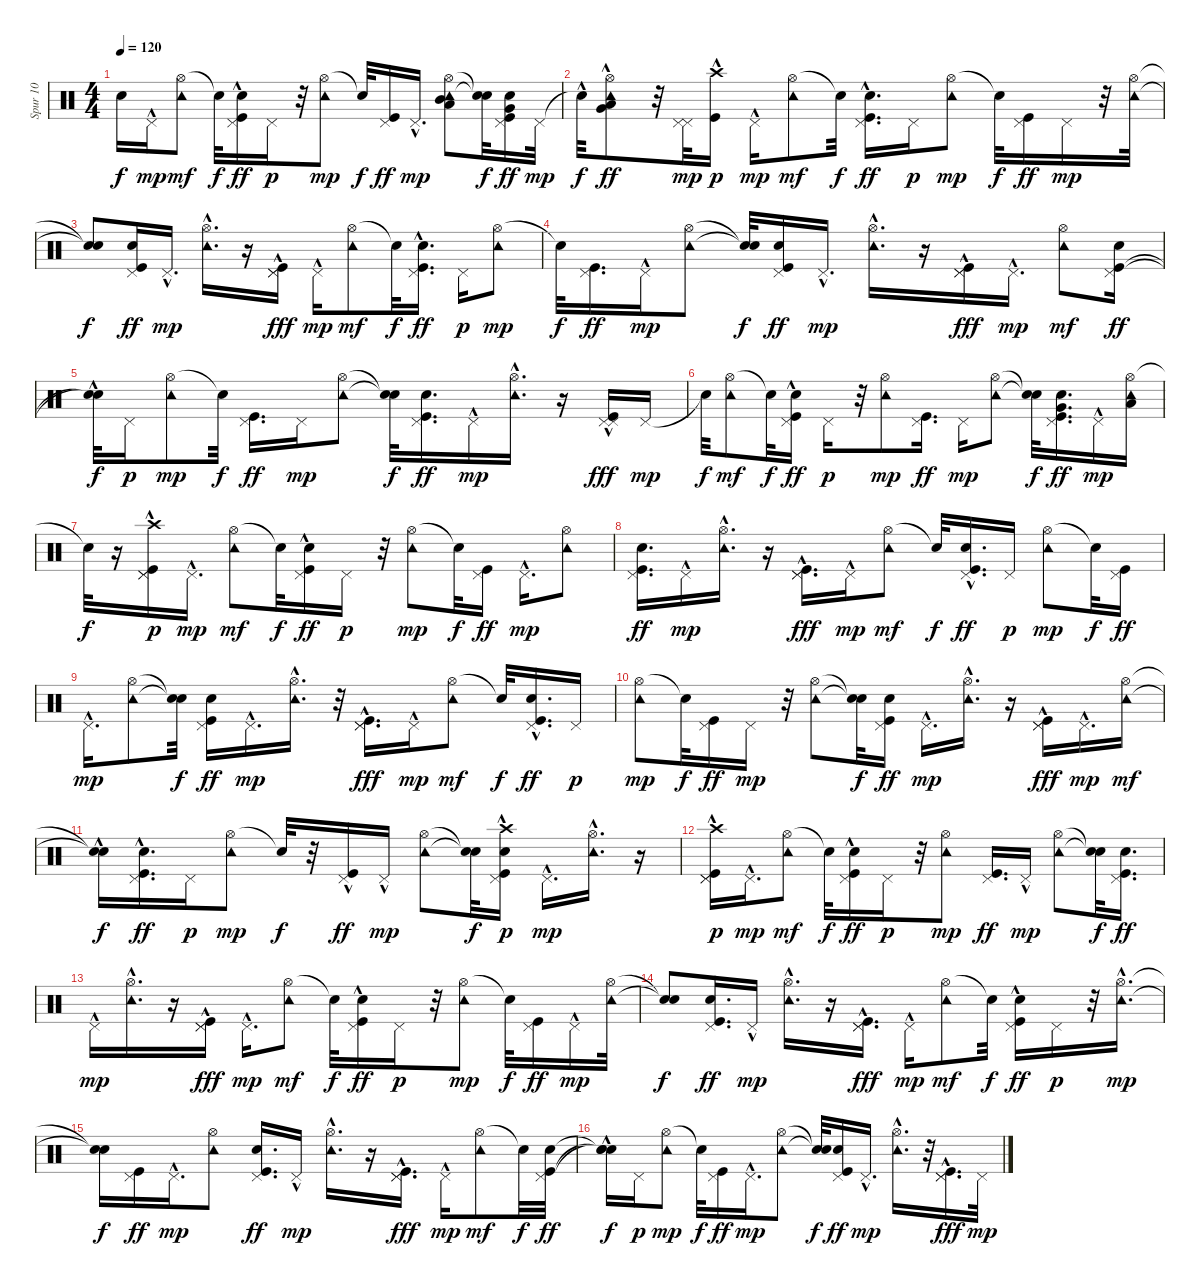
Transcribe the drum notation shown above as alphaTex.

\track ("Spur 10" "Spur 10") {instrument percussion}
\staff {score}
\articulation defaults
\ts (4 4)
\tempo 120
\clef neutral
\ks c "Snare (hit)"{t}.16{dy f} "Pedal Hi-Hat (hit)"{hac}.16{dy mp}
("Hi-Hat (open)" "Tambourine (hit)").8{dy mf} "Snare (hit)"{t}.32{dy f} ("Pedal Hi-Hat (hit)" "Kick (hit)"{hac} "Snare (hit) 2"{hac}).16{dy ff} "Pedal Hi-Hat (hit)".16{dy p} r.32 ("Hi-Hat (open)" "Tambourine (hit)").8{dy mp} "Snare (hit)"{t}.32{dy f} ("Pedal Hi-Hat (hit)" "Kick (hit)").16{dy ff} "Pedal Hi-Hat (hit)"{hac}.16{d dy mp} ("Hi-Hat (open)" "Tambourine (hit)" "Mid Tom (hit)" "Low Tom (hit)").8 ("Snare (hit)"{t} "Snare (hit)"{t}).32{dy f} ("Pedal Hi-Hat (hit)" "Kick (hit)" "Snare (hit) 2" "Very Low Tom (hit)").16{dy ff} "Pedal Hi-Hat (hit)".32{dy mp} |
"Snare (hit)"{hac t}.32{dy f} ("Hi-Hat (open)" "Tambourine (hit)"{hac} "Low Floor Tom (hit)" "Very Low Tom (hit)"{hac}).8{dy ff} r.32 ("Pedal Hi-Hat (hit)" "Pedal Hi-Hat (hit)").32{dy mp} ("Kick (hit)"{hac} "Crash high (hit)").16{dy p} "Pedal Hi-Hat (hit)"{hac}.16{dy mp} ("Hi-Hat (open)" "Tambourine (hit)").8{dy mf} "Snare (hit)"{t}.32{dy f} ("Pedal Hi-Hat (hit)" "Kick (hit)"{hac} "Snare (hit) 2"{hac}).16{d dy ff} "Pedal Hi-Hat (hit)".16{dy p} ("Hi-Hat (open)" "Tambourine (hit)").8{dy mp} "Snare (hit)"{t}.32{dy f} ("Pedal Hi-Hat (hit)" "Kick (hit)").16{dy ff} "Pedal Hi-Hat (hit)".16{dy mp} r.32 ("Hi-Hat (open)" "Tambourine (hit)").32 |
("Snare (hit)"{t} "Snare (hit)"{t}).8{dy f} ("Pedal Hi-Hat (hit)" "Kick (hit)" "Snare (hit) 2").16{dy ff} "Pedal Hi-Hat (hit)"{hac}.16{d dy mp} ("Hi-Hat (open)" "Tambourine (hit)"{hac}).16{d} r.16 ("Pedal Hi-Hat (hit)" "Pedal Hi-Hat (hit)" "Kick (hit)"{hac}).16{dy fff} "Pedal Hi-Hat (hit)"{hac}.16{dy mp} ("Hi-Hat (open)" "Tambourine (hit)").8{dy mf} "Snare (hit)"{t}.32{dy f} ("Pedal Hi-Hat (hit)" "Kick (hit)"{hac} "Snare (hit) 2"{hac}).16{d dy ff} "Pedal Hi-Hat (hit)".16{dy p} ("Hi-Hat (open)" "Tambourine (hit)").8{dy mp} |
"Snare (hit)"{t}.32{dy f} ("Pedal Hi-Hat (hit)" "Kick (hit)").16{d dy ff} "Pedal Hi-Hat (hit)"{hac}.16{dy mp} ("Hi-Hat (open)" "Tambourine (hit)").8 ("Snare (hit)"{t} "Snare (hit)"{t}).32{dy f} ("Pedal Hi-Hat (hit)" "Kick (hit)" "Snare (hit) 2").16{dy ff} "Pedal Hi-Hat (hit)"{hac}.16{d dy mp} ("Hi-Hat (open)" "Tambourine (hit)"{hac}).16{d} r.16 ("Pedal Hi-Hat (hit)" "Pedal Hi-Hat (hit)" "Kick (hit)"{hac}).16{dy fff} "Pedal Hi-Hat (hit)"{hac}.16{d dy mp} ("Hi-Hat (open)" "Tambourine (hit)").8{dy mf} ("Pedal Hi-Hat (hit)" "Kick (hit)" "Snare (hit) 2").16{dy ff} |
("Snare (hit)"{hac t} "Snare (hit)"{t}).32{dy f} "Pedal Hi-Hat (hit)".16{dy p} ("Hi-Hat (open)" "Tambourine (hit)").8{dy mp} "Snare (hit)"{t}.32{dy f} ("Pedal Hi-Hat (hit)" "Kick (hit)").16{d dy ff} "Pedal Hi-Hat (hit)".16{dy mp} ("Hi-Hat (open)" "Tambourine (hit)").8 ("Snare (hit)"{t} "Snare (hit)"{t}).32{dy f} ("Pedal Hi-Hat (hit)" "Kick (hit)" "Snare (hit) 2").16{d dy ff} "Pedal Hi-Hat (hit)"{hac}.16{dy mp} ("Hi-Hat (open)" "Tambourine (hit)"{hac}).16{d} r.16 ("Pedal Hi-Hat (hit)" "Pedal Hi-Hat (hit)" "Kick (hit)"{hac}).16{dy fff} "Pedal Hi-Hat (hit)".16{dy mp} |
"Snare (hit)"{t}.32{dy f} ("Hi-Hat (open)" "Tambourine (hit)").8{dy mf} "Snare (hit)"{t}.32{dy f} ("Pedal Hi-Hat (hit)" "Kick (hit)"{hac} "Snare (hit) 2"{hac}).16{dy ff} "Pedal Hi-Hat (hit)".16{dy p} r.32 ("Hi-Hat (open)" "Tambourine (hit)").8{dy mp} ("Pedal Hi-Hat (hit)" "Kick (hit)").16{d dy ff} "Pedal Hi-Hat (hit)".16{dy mp} ("Hi-Hat (open)" "Tambourine (hit)").8 ("Snare (hit)"{t} "Snare (hit)"{t}).32{dy f} ("Pedal Hi-Hat (hit)" "Kick (hit)" "Snare (hit) 2" "Very Low Tom (hit)").16{d dy ff} "Pedal Hi-Hat (hit)"{hac}.16{dy mp} ("Hi-Hat (open)" "Tambourine (hit)" "Low Floor Tom (hit)").16 |
"Snare (hit)"{t}.32{dy f} r.16 ("Pedal Hi-Hat (hit)" "Pedal Hi-Hat (hit)" "Kick (hit)"{hac} "Crash high (hit)").16{dy p} "Pedal Hi-Hat (hit)"{hac}.16{d dy mp} ("Hi-Hat (open)" "Tambourine (hit)").8{dy mf} "Snare (hit)"{t}.32{dy f} ("Pedal Hi-Hat (hit)" "Kick (hit)"{hac} "Snare (hit) 2"{hac}).16{dy ff} "Pedal Hi-Hat (hit)".16{dy p} r.32 ("Hi-Hat (open)" "Tambourine (hit)").8{dy mp} "Snare (hit)"{t}.32{dy f} ("Pedal Hi-Hat (hit)" "Kick (hit)").16{dy ff} "Pedal Hi-Hat (hit)"{hac}.16{d dy mp} ("Hi-Hat (open)" "Tambourine (hit)").8 |
("Pedal Hi-Hat (hit)" "Kick (hit)" "Snare (hit) 2").16{d dy ff} "Pedal Hi-Hat (hit)"{hac}.16{dy mp} ("Hi-Hat (open)" "Tambourine (hit)"{hac}).16{d} r.16 ("Pedal Hi-Hat (hit)" "Pedal Hi-Hat (hit)" "Kick (hit)"{hac}).16{d dy fff} "Pedal Hi-Hat (hit)"{hac}.16{dy mp} ("Hi-Hat (open)" "Tambourine (hit)").8{dy mf} "Snare (hit)"{t}.32{dy f} ("Pedal Hi-Hat (hit)" "Kick (hit)"{hac} "Snare (hit) 2"{hac}).16{d dy ff} "Pedal Hi-Hat (hit)".16{dy p} ("Hi-Hat (open)" "Tambourine (hit)").8{dy mp} "Snare (hit)"{t}.32{dy f} ("Pedal Hi-Hat (hit)" "Kick (hit)").16{dy ff} |
"Pedal Hi-Hat (hit)"{hac}.16{d dy mp} ("Hi-Hat (open)" "Tambourine (hit)").8 ("Snare (hit)"{t} "Snare (hit)"{t}).32{dy f} ("Pedal Hi-Hat (hit)" "Kick (hit)" "Snare (hit) 2").16{dy ff} "Pedal Hi-Hat (hit)"{hac}.16{d dy mp} ("Hi-Hat (open)" "Tambourine (hit)"{hac}).16{d} r.32 ("Pedal Hi-Hat (hit)" "Pedal Hi-Hat (hit)" "Kick (hit)"{hac}).16{d dy fff} "Pedal Hi-Hat (hit)"{hac}.16{dy mp} ("Hi-Hat (open)" "Tambourine (hit)").8{dy mf} "Snare (hit)"{t}.32{dy f} ("Pedal Hi-Hat (hit)" "Kick (hit)" "Snare (hit) 2"{hac}).16{d dy ff} "Pedal Hi-Hat (hit)".16{dy p} |
("Hi-Hat (open)" "Tambourine (hit)").8{dy mp} "Snare (hit)"{t}.32{dy f} ("Pedal Hi-Hat (hit)" "Kick (hit)").16{dy ff} "Pedal Hi-Hat (hit)".16{dy mp} r.32 ("Hi-Hat (open)" "Tambourine (hit)").8 ("Snare (hit)"{t} "Snare (hit)"{t}).32{dy f} ("Pedal Hi-Hat (hit)" "Kick (hit)" "Snare (hit) 2").16{dy ff} "Pedal Hi-Hat (hit)"{hac}.16{d dy mp} ("Hi-Hat (open)" "Tambourine (hit)"{hac}).16{d} r.16 ("Pedal Hi-Hat (hit)" "Pedal Hi-Hat (hit)" "Kick (hit)"{hac}).16{dy fff} "Pedal Hi-Hat (hit)"{hac}.16{d dy mp} ("Hi-Hat (open)" "Tambourine (hit)").16{dy mf} |
("Snare (hit)"{hac t} "Snare (hit)"{t}).16{dy f} ("Pedal Hi-Hat (hit)" "Kick (hit)" "Snare (hit) 2"{hac}).16{d dy ff} "Pedal Hi-Hat (hit)".16{dy p} ("Hi-Hat (open)" "Tambourine (hit)").8{dy mp} "Snare (hit)"{t}.32{dy f} r.32 ("Pedal Hi-Hat (hit)" "Kick (hit)"{hac}).16{dy ff} "Pedal Hi-Hat (hit)"{hac}.16{dy mp} ("Hi-Hat (open)" "Tambourine (hit)").8 ("Snare (hit)"{t} "Snare (hit)"{t}).32{dy f} ("Pedal Hi-Hat (hit)" "Kick (hit)"{hac} "Snare (hit) 2" "Crash high (hit)").16{dy p} "Pedal Hi-Hat (hit)"{hac}.16{d dy mp} ("Hi-Hat (open)" "Tambourine (hit)"{hac}).16{d} r.16 |
("Pedal Hi-Hat (hit)" "Pedal Hi-Hat (hit)" "Kick (hit)"{hac} "Crash high (hit)").16{dy p} "Pedal Hi-Hat (hit)"{hac}.16{d dy mp} ("Hi-Hat (open)" "Tambourine (hit)").8{dy mf} "Snare (hit)"{t}.32{dy f} ("Pedal Hi-Hat (hit)" "Kick (hit)"{hac} "Snare (hit) 2"{hac}).16{dy ff} "Pedal Hi-Hat (hit)".16{dy p} r.32 ("Hi-Hat (open)" "Tambourine (hit)").8{dy mp} ("Pedal Hi-Hat (hit)" "Kick (hit)").16{d dy ff} "Pedal Hi-Hat (hit)"{hac}.16{dy mp} ("Hi-Hat (open)" "Tambourine (hit)").8 ("Snare (hit)"{t} "Snare (hit)"{t}).32{dy f} ("Pedal Hi-Hat (hit)" "Kick (hit)" "Snare (hit) 2").16{d dy ff} |
"Pedal Hi-Hat (hit)"{hac}.16{dy mp} ("Hi-Hat (open)" "Tambourine (hit)"{hac}).16{d} r.16 ("Pedal Hi-Hat (hit)" "Pedal Hi-Hat (hit)" "Kick (hit)"{hac}).16{dy fff} "Pedal Hi-Hat (hit)"{hac}.16{d dy mp} ("Hi-Hat (open)" "Tambourine (hit)").8{dy mf} "Snare (hit)"{t}.32{dy f} ("Pedal Hi-Hat (hit)" "Kick (hit)"{hac} "Snare (hit) 2"{hac}).16{dy ff} "Pedal Hi-Hat (hit)".16{dy p} r.32 ("Hi-Hat (open)" "Tambourine (hit)").8{dy mp} "Snare (hit)"{t}.32{dy f} ("Pedal Hi-Hat (hit)" "Kick (hit)").16{dy ff} "Pedal Hi-Hat (hit)"{hac}.16{dy mp} ("Hi-Hat (open)" "Tambourine (hit)").32 |
("Snare (hit)"{t} "Snare (hit)"{t}).8{dy f} ("Pedal Hi-Hat (hit)" "Kick (hit)" "Snare (hit) 2").16{d dy ff} "Pedal Hi-Hat (hit)"{hac}.16{dy mp} ("Hi-Hat (open)" "Tambourine (hit)"{hac}).16{d} r.16 ("Pedal Hi-Hat (hit)" "Pedal Hi-Hat (hit)" "Kick (hit)"{hac}).16{d dy fff} "Pedal Hi-Hat (hit)"{hac}.16{dy mp} ("Hi-Hat (open)" "Tambourine (hit)").8{dy mf} "Snare (hit)"{t}.32{dy f} ("Pedal Hi-Hat (hit)" "Kick (hit)"{hac} "Snare (hit) 2"{hac}).16{dy ff} "Pedal Hi-Hat (hit)".16{dy p} r.32 ("Hi-Hat (open)"{hac} "Tambourine (hit)"{hac}).16{d dy mp} |
("Snare (hit)"{t} "Snare (hit)"{t}).16{dy f} ("Pedal Hi-Hat (hit)" "Kick (hit)").16{dy ff} "Pedal Hi-Hat (hit)"{hac}.16{d dy mp} ("Hi-Hat (open)" "Tambourine (hit)").8 ("Pedal Hi-Hat (hit)" "Kick (hit)" "Snare (hit) 2").16{d dy ff} "Pedal Hi-Hat (hit)"{hac}.16{dy mp} ("Hi-Hat (open)" "Tambourine (hit)"{hac}).16{d} r.16 ("Pedal Hi-Hat (hit)" "Pedal Hi-Hat (hit)" "Kick (hit)"{hac}).16{d dy fff} "Pedal Hi-Hat (hit)"{hac}.16{dy mp} ("Hi-Hat (open)" "Tambourine (hit)").8{dy mf} "Snare (hit)"{t}.32{dy f} ("Pedal Hi-Hat (hit)" "Kick (hit)" "Snare (hit) 2").32{dy ff} |
("Snare (hit)"{t} "Snare (hit)"{hac t} "Snare (hit)"{hac t}).16{dy f} "Pedal Hi-Hat (hit)".16{dy p} ("Hi-Hat (open)" "Tambourine (hit)").8{dy mp} "Snare (hit)"{t}.32{dy f} ("Pedal Hi-Hat (hit)" "Kick (hit)").16{dy ff} "Pedal Hi-Hat (hit)"{hac}.16{d dy mp} ("Hi-Hat (open)" "Tambourine (hit)").8 ("Snare (hit)"{t} "Snare (hit)"{t}).32{dy f} ("Pedal Hi-Hat (hit)" "Kick (hit)" "Snare (hit) 2").16{dy ff} "Pedal Hi-Hat (hit)"{hac}.16{d dy mp} ("Hi-Hat (open)" "Tambourine (hit)"{hac}).16{d} r.32 ("Pedal Hi-Hat (hit)" "Pedal Hi-Hat (hit)" "Kick (hit)"{hac}).16{d dy fff} "Pedal Hi-Hat (hit)".32{dy mp}
